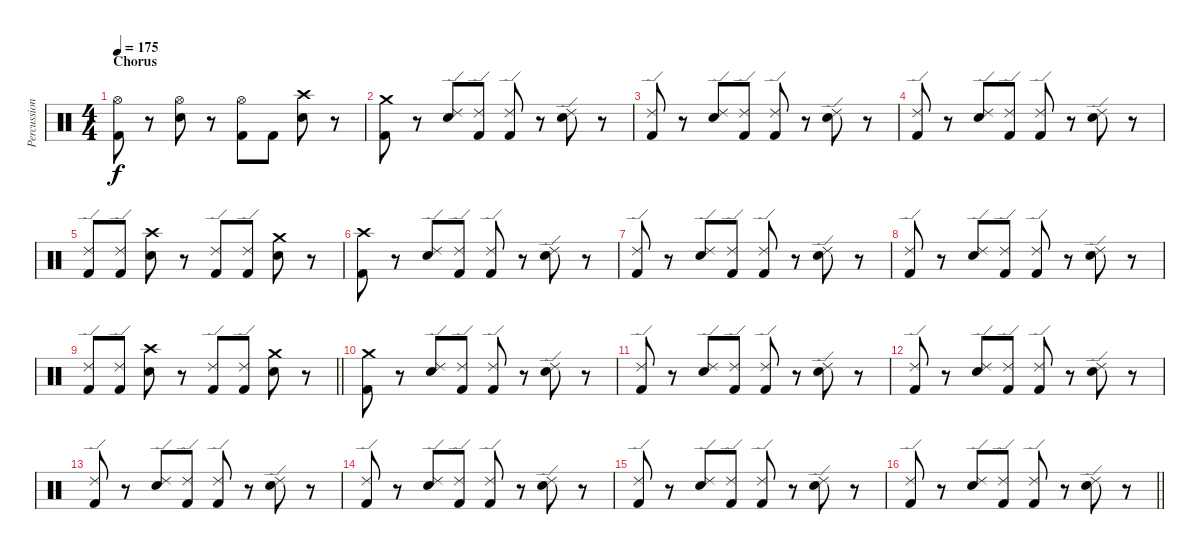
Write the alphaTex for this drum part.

\track ("Percussion" "Percussion") {instrument percussion}
\staff {score}
\articulation defaults
\ts (4 4)
\section ("" "Chorus")
\tempo 175
\clef neutral
\ks c
("Hi-Hat (open)" "Kick (hit) 2").8{dy f} r.8 ("Hi-Hat (open)" "Electric Snare (hit)").8 r.8 ("Hi-Hat (open)" "Kick (hit) 2").8 "Kick (hit) 2".8 ("Crash high (hit)" "Electric Snare (hit)").8 r.8 |
("Crash medium (hit)" "Kick (hit) 2").8 r.8 ("Ride (edge) 2" "Electric Snare (hit)").8 ("Ride (edge) 2" "Kick (hit) 2").8 ("Ride (edge) 2" "Kick (hit) 2").8 r.8 ("Ride (edge) 2" "Electric Snare (hit)").8 r.8 |
("Ride (edge) 2" "Kick (hit) 2").8 r.8 ("Ride (edge) 2" "Electric Snare (hit)").8 ("Ride (edge) 2" "Kick (hit) 2").8 ("Ride (edge) 2" "Kick (hit) 2").8 r.8 ("Ride (edge) 2" "Electric Snare (hit)").8 r.8 |
("Ride (edge) 2" "Kick (hit) 2").8 r.8 ("Ride (edge) 2" "Electric Snare (hit)").8 ("Ride (edge) 2" "Kick (hit) 2").8 ("Ride (edge) 2" "Kick (hit) 2").8 r.8 ("Ride (edge) 2" "Electric Snare (hit)").8 r.8 |
("Ride (edge) 2" "Kick (hit) 2").8 ("Ride (edge) 2" "Kick (hit) 2").8 ("Crash high (hit)" "Electric Snare (hit)").8 r.8 ("Ride (edge) 2" "Kick (hit) 2").8 ("Ride (edge) 2" "Kick (hit) 2").8 ("Crash medium (hit)" "Electric Snare (hit)").8 r.8 |
("Crash high (hit)" "Kick (hit) 2").8 r.8 ("Ride (edge) 2" "Electric Snare (hit)").8 ("Ride (edge) 2" "Kick (hit) 2").8 ("Ride (edge) 2" "Kick (hit) 2").8 r.8 ("Ride (edge) 2" "Electric Snare (hit)").8 r.8 |
("Ride (edge) 2" "Kick (hit) 2").8 r.8 ("Ride (edge) 2" "Electric Snare (hit)").8 ("Ride (edge) 2" "Kick (hit) 2").8 ("Ride (edge) 2" "Kick (hit) 2").8 r.8 ("Ride (edge) 2" "Electric Snare (hit)").8 r.8 |
("Ride (edge) 2" "Kick (hit) 2").8 r.8 ("Ride (edge) 2" "Electric Snare (hit)").8 ("Ride (edge) 2" "Kick (hit) 2").8 ("Ride (edge) 2" "Kick (hit) 2").8 r.8 ("Ride (edge) 2" "Electric Snare (hit)").8 r.8 |
\barLineRight lightlight
("Ride (edge) 2" "Kick (hit) 2").8 ("Ride (edge) 2" "Kick (hit) 2").8 ("Crash high (hit)" "Electric Snare (hit)").8 r.8 ("Ride (edge) 2" "Kick (hit) 2").8 ("Ride (edge) 2" "Kick (hit) 2").8 ("Crash medium (hit)" "Electric Snare (hit)").8 r.8 |
\section ("" "")
("Crash medium (hit)" "Kick (hit) 2").8 r.8 ("Ride (edge) 2" "Electric Snare (hit)").8 ("Ride (edge) 2" "Kick (hit) 2").8 ("Ride (edge) 2" "Kick (hit) 2").8 r.8 ("Ride (edge) 2" "Electric Snare (hit)").8 r.8 |
("Ride (edge) 2" "Kick (hit) 2").8 r.8 ("Ride (edge) 2" "Electric Snare (hit)").8 ("Ride (edge) 2" "Kick (hit) 2").8 ("Ride (edge) 2" "Kick (hit) 2").8 r.8 ("Ride (edge) 2" "Electric Snare (hit)").8 r.8 |
("Ride (edge) 2" "Kick (hit) 2").8 r.8 ("Ride (edge) 2" "Electric Snare (hit)").8 ("Ride (edge) 2" "Kick (hit) 2").8 ("Ride (edge) 2" "Kick (hit) 2").8 r.8 ("Ride (edge) 2" "Electric Snare (hit)").8 r.8 |
("Ride (edge) 2" "Kick (hit) 2").8 r.8 ("Ride (edge) 2" "Electric Snare (hit)").8 ("Ride (edge) 2" "Kick (hit) 2").8 ("Ride (edge) 2" "Kick (hit) 2").8 r.8 ("Ride (edge) 2" "Electric Snare (hit)").8 r.8 |
("Ride (edge) 2" "Kick (hit) 2").8 r.8 ("Ride (edge) 2" "Electric Snare (hit)").8 ("Ride (edge) 2" "Kick (hit) 2").8 ("Ride (edge) 2" "Kick (hit) 2").8 r.8 ("Ride (edge) 2" "Electric Snare (hit)").8 r.8 |
("Ride (edge) 2" "Kick (hit) 2").8 r.8 ("Ride (edge) 2" "Electric Snare (hit)").8 ("Ride (edge) 2" "Kick (hit) 2").8 ("Ride (edge) 2" "Kick (hit) 2").8 r.8 ("Ride (edge) 2" "Electric Snare (hit)").8 r.8 |
\barLineRight lightlight
("Ride (edge) 2" "Kick (hit) 2").8 r.8 ("Ride (edge) 2" "Electric Snare (hit)").8 ("Ride (edge) 2" "Kick (hit) 2").8 ("Ride (edge) 2" "Kick (hit) 2").8 r.8 ("Ride (edge) 2" "Electric Snare (hit)").8 r.8
